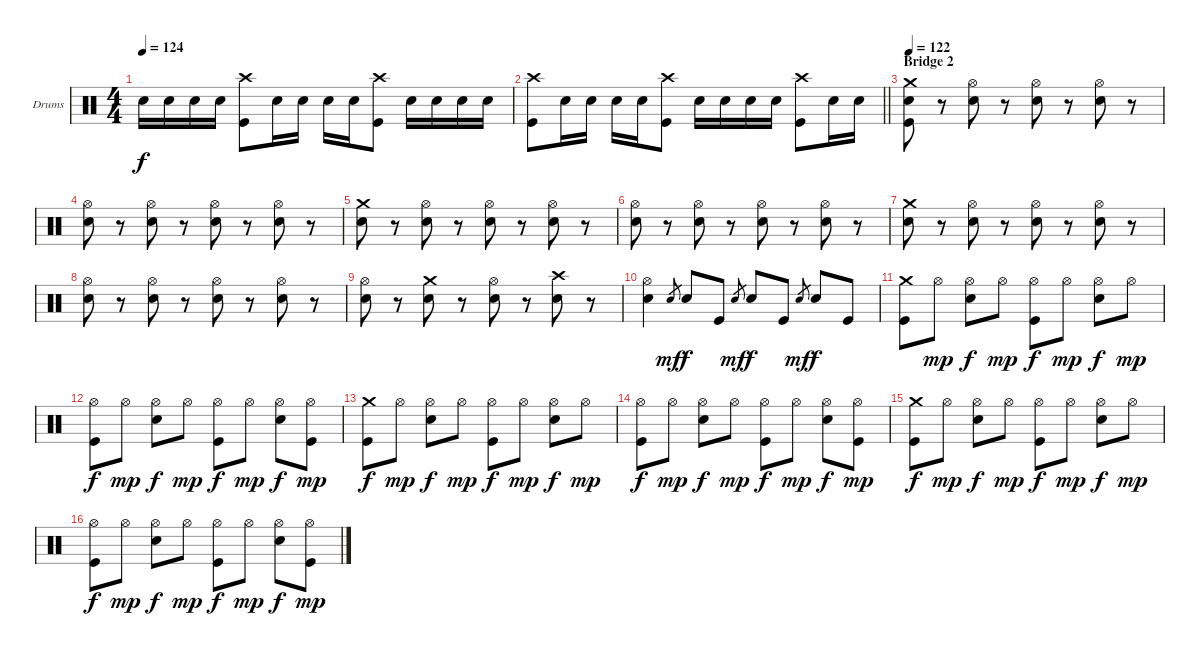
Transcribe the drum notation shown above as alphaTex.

\bracketExtendMode groupsimilarinstruments
\firstSystemTrackNameOrientation horizontal
\otherSystemsTrackNameOrientation horizontal
\track ("Drumkit" "Drums") {instrument percussion}
\staff {score}
\articulation defaults
\ts (4 4)
\tempo 124
\clef neutral
\ks c "Snare (hit) 2".16{dy f} "Snare (hit) 2".16 "Snare (hit) 2".16 "Snare (hit) 2".16
("Crash high (hit)" "Kick (hit)").8 "Snare (hit) 2".16 "Snare (hit) 2".16 "Snare (hit) 2".16 "Snare (hit) 2".16 ("Crash high (hit)" "Kick (hit)").8 "Snare (hit) 2".16 "Snare (hit) 2".16 "Snare (hit) 2".16 "Snare (hit) 2".16 |
\barLineRight lightlight
("Crash high (hit)" "Kick (hit)").8 "Snare (hit) 2".16 "Snare (hit) 2".16 "Snare (hit) 2".16 "Snare (hit) 2".16 ("Crash high (hit)" "Kick (hit)").8 "Snare (hit) 2".16 "Snare (hit) 2".16 "Snare (hit) 2".16 "Snare (hit) 2".16 ("Crash high (hit)" "Kick (hit)").8 "Snare (hit) 2".16 "Snare (hit) 2".16 |
\section ("" "Bridge 2")
\tempo 122
("Crash medium (hit)" "Snare (hit) 2" "Kick (hit)").8 r.8 ("Hi-Hat (open)" "Snare (hit) 2").8 r.8 ("Hi-Hat (open)" "Snare (hit) 2").8 r.8 ("Hi-Hat (open)" "Snare (hit) 2").8 r.8 |
("Hi-Hat (open)" "Snare (hit) 2").8 r.8 ("Hi-Hat (open)" "Snare (hit) 2").8 r.8 ("Hi-Hat (open)" "Snare (hit) 2").8 r.8 ("Hi-Hat (open)" "Snare (hit) 2").8 r.8 |
("Crash medium (hit)" "Snare (hit) 2").8 r.8 ("Hi-Hat (open)" "Snare (hit) 2").8 r.8 ("Hi-Hat (open)" "Snare (hit) 2").8 r.8 ("Hi-Hat (open)" "Snare (hit) 2").8 r.8 |
("Hi-Hat (open)" "Snare (hit) 2").8 r.8 ("Hi-Hat (open)" "Snare (hit) 2").8 r.8 ("Hi-Hat (open)" "Snare (hit) 2").8 r.8 ("Hi-Hat (open)" "Snare (hit) 2").8 r.8 |
("Crash medium (hit)" "Snare (hit) 2").8 r.8 ("Hi-Hat (open)" "Snare (hit) 2").8 r.8 ("Hi-Hat (open)" "Snare (hit) 2").8 r.8 ("Hi-Hat (open)" "Snare (hit) 2").8 r.8 |
("Hi-Hat (open)" "Snare (hit) 2").8 r.8 ("Hi-Hat (open)" "Snare (hit) 2").8 r.8 ("Hi-Hat (open)" "Snare (hit) 2").8 r.8 ("Hi-Hat (open)" "Snare (hit) 2").8 r.8 |
("Hi-Hat (open)" "Snare (hit) 2").8 r.8 ("Crash medium (hit)" "Snare (hit) 2").8 r.8 ("Hi-Hat (open)" "Snare (hit) 2").8 r.8 ("Crash high (hit)" "Snare (hit) 2").8 r.8 |
("Hi-Hat (open)" "Snare (hit) 2").4 "Snare (hit) 2".8{gr dy mf} "Snare (hit) 2".8{dy f} "Kick (hit)".8 "Snare (hit) 2".8{gr dy mf} "Snare (hit) 2".8{dy f} "Kick (hit)".8 "Snare (hit) 2".8{gr dy mf} "Snare (hit) 2".8{dy f} "Kick (hit)".8 |
("Crash medium (hit)" "Kick (hit)").8 "Hi-Hat (open)".8{dy mp} ("Hi-Hat (open)" "Snare (hit) 2").8{dy f} "Hi-Hat (open)".8{dy mp} ("Hi-Hat (open)" "Kick (hit)").8{dy f} "Hi-Hat (open)".8{dy mp} ("Hi-Hat (open)" "Snare (hit) 2").8{dy f} "Hi-Hat (open)".8{dy mp} |
("Hi-Hat (open)" "Kick (hit)").8{dy f} "Hi-Hat (open)".8{dy mp} ("Hi-Hat (open)" "Snare (hit) 2").8{dy f} "Hi-Hat (open)".8{dy mp} ("Hi-Hat (open)" "Kick (hit)").8{dy f} "Hi-Hat (open)".8{dy mp} ("Hi-Hat (open)" "Snare (hit) 2").8{dy f} ("Hi-Hat (open)" "Kick (hit)").8{dy mp} |
("Crash medium (hit)" "Kick (hit)").8{dy f} "Hi-Hat (open)".8{dy mp} ("Hi-Hat (open)" "Snare (hit) 2").8{dy f} "Hi-Hat (open)".8{dy mp} ("Hi-Hat (open)" "Kick (hit)").8{dy f} "Hi-Hat (open)".8{dy mp} ("Hi-Hat (open)" "Snare (hit) 2").8{dy f} "Hi-Hat (open)".8{dy mp} |
("Hi-Hat (open)" "Kick (hit)").8{dy f} "Hi-Hat (open)".8{dy mp} ("Hi-Hat (open)" "Snare (hit) 2").8{dy f} "Hi-Hat (open)".8{dy mp} ("Hi-Hat (open)" "Kick (hit)").8{dy f} "Hi-Hat (open)".8{dy mp} ("Hi-Hat (open)" "Snare (hit) 2").8{dy f} ("Hi-Hat (open)" "Kick (hit)").8{dy mp} |
("Crash medium (hit)" "Kick (hit)").8{dy f} "Hi-Hat (open)".8{dy mp} ("Hi-Hat (open)" "Snare (hit) 2").8{dy f} "Hi-Hat (open)".8{dy mp} ("Hi-Hat (open)" "Kick (hit)").8{dy f} "Hi-Hat (open)".8{dy mp} ("Hi-Hat (open)" "Snare (hit) 2").8{dy f} "Hi-Hat (open)".8{dy mp} |
("Hi-Hat (open)" "Kick (hit)").8{dy f} "Hi-Hat (open)".8{dy mp} ("Hi-Hat (open)" "Snare (hit) 2").8{dy f} "Hi-Hat (open)".8{dy mp} ("Hi-Hat (open)" "Kick (hit)").8{dy f} "Hi-Hat (open)".8{dy mp} ("Hi-Hat (open)" "Snare (hit) 2").8{dy f} ("Hi-Hat (open)" "Kick (hit)").8{dy mp}
